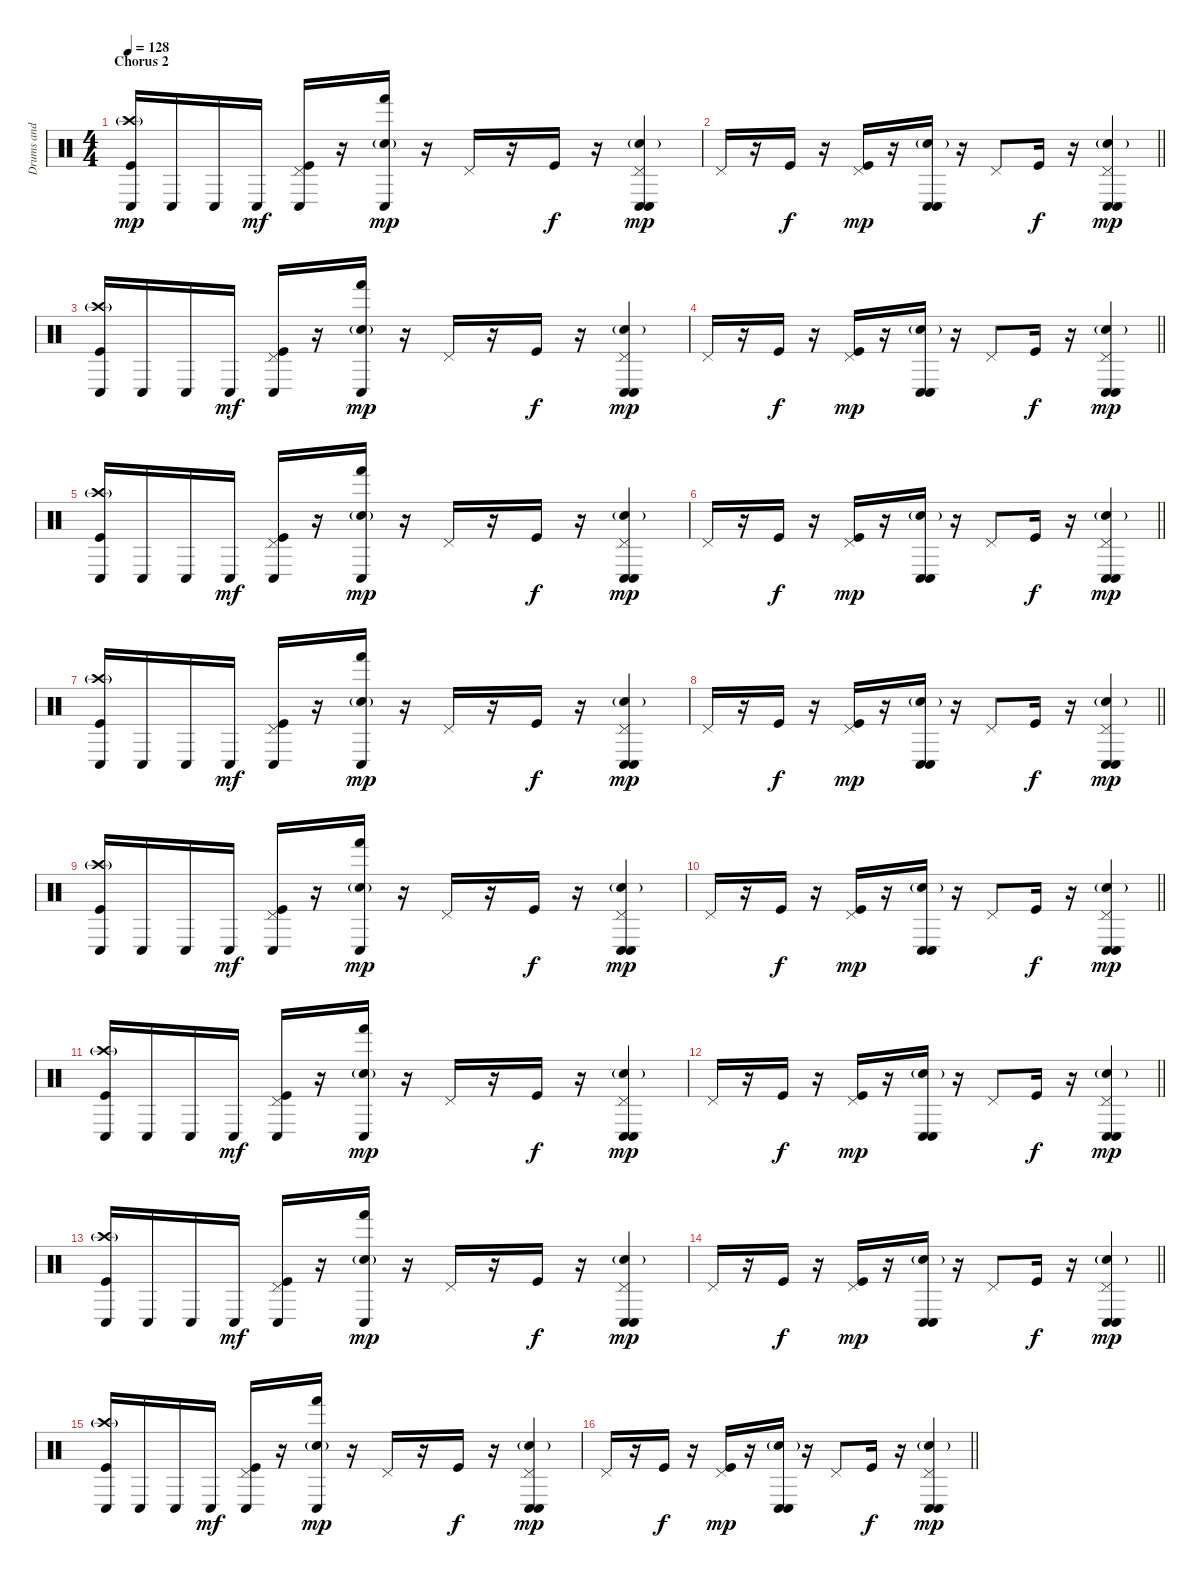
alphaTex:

\track ("Drums and Percussions" "Drums and ") {instrument percussion}
\staff {score}
\articulation defaults
\ts (4 4)
\section ("" "Chorus 2")
\tempo 128
\clef neutral
\ks c
("Crash high (hit)"{g} "Conga low (hit)" "Kick (hit)").16{dy mp} "Conga low (hit)".16 "Conga low (hit)".16 "Conga low (hit)".16{dy mf} ("Pedal Hi-Hat (hit)" "Conga low (hit)" "Kick (hit)").16 r.16 ("Conga low (hit)" "Hand (hit)" "Electric Snare (hit)"{g}).16{dy mp} r.16 "Pedal Hi-Hat (hit)".16 r.16 "Kick (hit)".16{dy f} r.16 ("Conga low (hit)" "Conga low (hit)" "Pedal Hi-Hat (hit)" "Electric Snare (hit)"{g}).4{bd 120 dy mp} |
\barLineRight lightlight "Pedal Hi-Hat (hit)".16
r.16 "Kick (hit)".16{dy f} r.16 ("Pedal Hi-Hat (hit)" "Kick (hit)").16{dy mp} r.16 ("Conga low (hit)" "Conga low (hit)" "Electric Snare (hit)"{g}).16{bd 120} r.16 "Pedal Hi-Hat (hit)".8 "Kick (hit)".16{dy f} r.16 ("Conga low (hit)" "Conga low (hit)" "Pedal Hi-Hat (hit)" "Electric Snare (hit)"{g}).4{bd 120 dy mp} |
("Crash high (hit)"{g} "Conga low (hit)" "Kick (hit)").16 "Conga low (hit)".16 "Conga low (hit)".16 "Conga low (hit)".16{dy mf} ("Pedal Hi-Hat (hit)" "Conga low (hit)" "Kick (hit)").16 r.16 ("Conga low (hit)" "Hand (hit)" "Electric Snare (hit)"{g}).16{dy mp} r.16 "Pedal Hi-Hat (hit)".16 r.16 "Kick (hit)".16{dy f} r.16 ("Conga low (hit)" "Conga low (hit)" "Pedal Hi-Hat (hit)" "Electric Snare (hit)"{g}).4{bd 120 dy mp} |
\barLineRight lightlight "Pedal Hi-Hat (hit)".16
r.16 "Kick (hit)".16{dy f} r.16 ("Pedal Hi-Hat (hit)" "Kick (hit)").16{dy mp} r.16 ("Conga low (hit)" "Conga low (hit)" "Electric Snare (hit)"{g}).16{bd 120} r.16 "Pedal Hi-Hat (hit)".8 "Kick (hit)".16{dy f} r.16 ("Conga low (hit)" "Conga low (hit)" "Pedal Hi-Hat (hit)" "Electric Snare (hit)"{g}).4{bd 120 dy mp} |
("Crash high (hit)"{g} "Conga low (hit)" "Kick (hit)").16 "Conga low (hit)".16 "Conga low (hit)".16 "Conga low (hit)".16{dy mf} ("Pedal Hi-Hat (hit)" "Conga low (hit)" "Kick (hit)").16 r.16 ("Conga low (hit)" "Hand (hit)" "Electric Snare (hit)"{g}).16{dy mp} r.16 "Pedal Hi-Hat (hit)".16 r.16 "Kick (hit)".16{dy f} r.16 ("Conga low (hit)" "Conga low (hit)" "Pedal Hi-Hat (hit)" "Electric Snare (hit)"{g}).4{bd 120 dy mp} |
\barLineRight lightlight "Pedal Hi-Hat (hit)".16
r.16 "Kick (hit)".16{dy f} r.16 ("Pedal Hi-Hat (hit)" "Kick (hit)").16{dy mp} r.16 ("Conga low (hit)" "Conga low (hit)" "Electric Snare (hit)"{g}).16{bd 120} r.16 "Pedal Hi-Hat (hit)".8 "Kick (hit)".16{dy f} r.16 ("Conga low (hit)" "Conga low (hit)" "Pedal Hi-Hat (hit)" "Electric Snare (hit)"{g}).4{bd 120 dy mp} |
("Crash high (hit)"{g} "Conga low (hit)" "Kick (hit)").16 "Conga low (hit)".16 "Conga low (hit)".16 "Conga low (hit)".16{dy mf} ("Pedal Hi-Hat (hit)" "Conga low (hit)" "Kick (hit)").16 r.16 ("Conga low (hit)" "Hand (hit)" "Electric Snare (hit)"{g}).16{dy mp} r.16 "Pedal Hi-Hat (hit)".16 r.16 "Kick (hit)".16{dy f} r.16 ("Conga low (hit)" "Conga low (hit)" "Pedal Hi-Hat (hit)" "Electric Snare (hit)"{g}).4{bd 120 dy mp} |
\barLineRight lightlight "Pedal Hi-Hat (hit)".16
r.16 "Kick (hit)".16{dy f} r.16 ("Pedal Hi-Hat (hit)" "Kick (hit)").16{dy mp} r.16 ("Conga low (hit)" "Conga low (hit)" "Electric Snare (hit)"{g}).16{bd 120} r.16 "Pedal Hi-Hat (hit)".8 "Kick (hit)".16{dy f} r.16 ("Conga low (hit)" "Conga low (hit)" "Pedal Hi-Hat (hit)" "Electric Snare (hit)"{g}).4{bd 120 dy mp} |
("Crash high (hit)"{g} "Conga low (hit)" "Kick (hit)").16 "Conga low (hit)".16 "Conga low (hit)".16 "Conga low (hit)".16{dy mf} ("Pedal Hi-Hat (hit)" "Conga low (hit)" "Kick (hit)").16 r.16 ("Conga low (hit)" "Hand (hit)" "Electric Snare (hit)"{g}).16{dy mp} r.16 "Pedal Hi-Hat (hit)".16 r.16 "Kick (hit)".16{dy f} r.16 ("Conga low (hit)" "Conga low (hit)" "Pedal Hi-Hat (hit)" "Electric Snare (hit)"{g}).4{bd 120 dy mp} |
\barLineRight lightlight "Pedal Hi-Hat (hit)".16
r.16 "Kick (hit)".16{dy f} r.16 ("Pedal Hi-Hat (hit)" "Kick (hit)").16{dy mp} r.16 ("Conga low (hit)" "Conga low (hit)" "Electric Snare (hit)"{g}).16{bd 120} r.16 "Pedal Hi-Hat (hit)".8 "Kick (hit)".16{dy f} r.16 ("Conga low (hit)" "Conga low (hit)" "Pedal Hi-Hat (hit)" "Electric Snare (hit)"{g}).4{bd 120 dy mp} |
("Crash high (hit)"{g} "Conga low (hit)" "Kick (hit)").16 "Conga low (hit)".16 "Conga low (hit)".16 "Conga low (hit)".16{dy mf} ("Pedal Hi-Hat (hit)" "Conga low (hit)" "Kick (hit)").16 r.16 ("Conga low (hit)" "Hand (hit)" "Electric Snare (hit)"{g}).16{dy mp} r.16 "Pedal Hi-Hat (hit)".16 r.16 "Kick (hit)".16{dy f} r.16 ("Conga low (hit)" "Conga low (hit)" "Pedal Hi-Hat (hit)" "Electric Snare (hit)"{g}).4{bd 120 dy mp} |
\barLineRight lightlight "Pedal Hi-Hat (hit)".16
r.16 "Kick (hit)".16{dy f} r.16 ("Pedal Hi-Hat (hit)" "Kick (hit)").16{dy mp} r.16 ("Conga low (hit)" "Conga low (hit)" "Electric Snare (hit)"{g}).16{bd 120} r.16 "Pedal Hi-Hat (hit)".8 "Kick (hit)".16{dy f} r.16 ("Conga low (hit)" "Conga low (hit)" "Pedal Hi-Hat (hit)" "Electric Snare (hit)"{g}).4{bd 120 dy mp} |
("Crash high (hit)"{g} "Conga low (hit)" "Kick (hit)").16 "Conga low (hit)".16 "Conga low (hit)".16 "Conga low (hit)".16{dy mf} ("Pedal Hi-Hat (hit)" "Conga low (hit)" "Kick (hit)").16 r.16 ("Conga low (hit)" "Hand (hit)" "Electric Snare (hit)"{g}).16{dy mp} r.16 "Pedal Hi-Hat (hit)".16 r.16 "Kick (hit)".16{dy f} r.16 ("Conga low (hit)" "Conga low (hit)" "Pedal Hi-Hat (hit)" "Electric Snare (hit)"{g}).4{bd 120 dy mp} |
\barLineRight lightlight "Pedal Hi-Hat (hit)".16
r.16 "Kick (hit)".16{dy f} r.16 ("Pedal Hi-Hat (hit)" "Kick (hit)").16{dy mp} r.16 ("Conga low (hit)" "Conga low (hit)" "Electric Snare (hit)"{g}).16{bd 120} r.16 "Pedal Hi-Hat (hit)".8 "Kick (hit)".16{dy f} r.16 ("Conga low (hit)" "Conga low (hit)" "Pedal Hi-Hat (hit)" "Electric Snare (hit)"{g}).4{bd 120 dy mp} |
("Crash high (hit)"{g} "Conga low (hit)" "Kick (hit)").16 "Conga low (hit)".16 "Conga low (hit)".16 "Conga low (hit)".16{dy mf} ("Pedal Hi-Hat (hit)" "Conga low (hit)" "Kick (hit)").16 r.16 ("Conga low (hit)" "Hand (hit)" "Electric Snare (hit)"{g}).16{dy mp} r.16 "Pedal Hi-Hat (hit)".16 r.16 "Kick (hit)".16{dy f} r.16 ("Conga low (hit)" "Conga low (hit)" "Pedal Hi-Hat (hit)" "Electric Snare (hit)"{g}).4{bd 120 dy mp} |
\barLineRight lightlight "Pedal Hi-Hat (hit)".16
r.16 "Kick (hit)".16{dy f} r.16 ("Pedal Hi-Hat (hit)" "Kick (hit)").16{dy mp} r.16 ("Conga low (hit)" "Conga low (hit)" "Electric Snare (hit)"{g}).16{bd 120} r.16 "Pedal Hi-Hat (hit)".8 "Kick (hit)".16{dy f} r.16 ("Conga low (hit)" "Conga low (hit)" "Pedal Hi-Hat (hit)" "Electric Snare (hit)"{g}).4{bd 120 dy mp}
